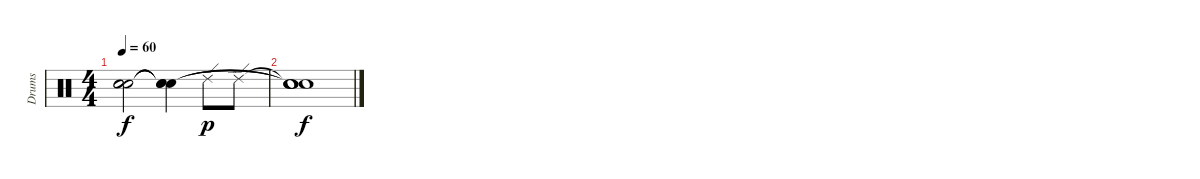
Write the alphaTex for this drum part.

\track ("Drums" "Drums") {instrument percussion}
\staff {score}
\articulation defaults
\ts (4 4)
\tempo 60
\clef neutral
\ks c
("Snare (hit)"{t} "Snare (hit)"{t} "Snare (hit)"{t}).2{dy f} ("Snare (hit)"{t} "Snare (hit)"{t} "Snare (hit)"{t}).4 "Ride (edge) 2".8{dy p} "Ride (edge) 2".8 |
("Snare (hit)"{t} "Snare (hit)"{t} "Snare (hit)"{t} "Snare (hit)"{t}).1{dy f}
